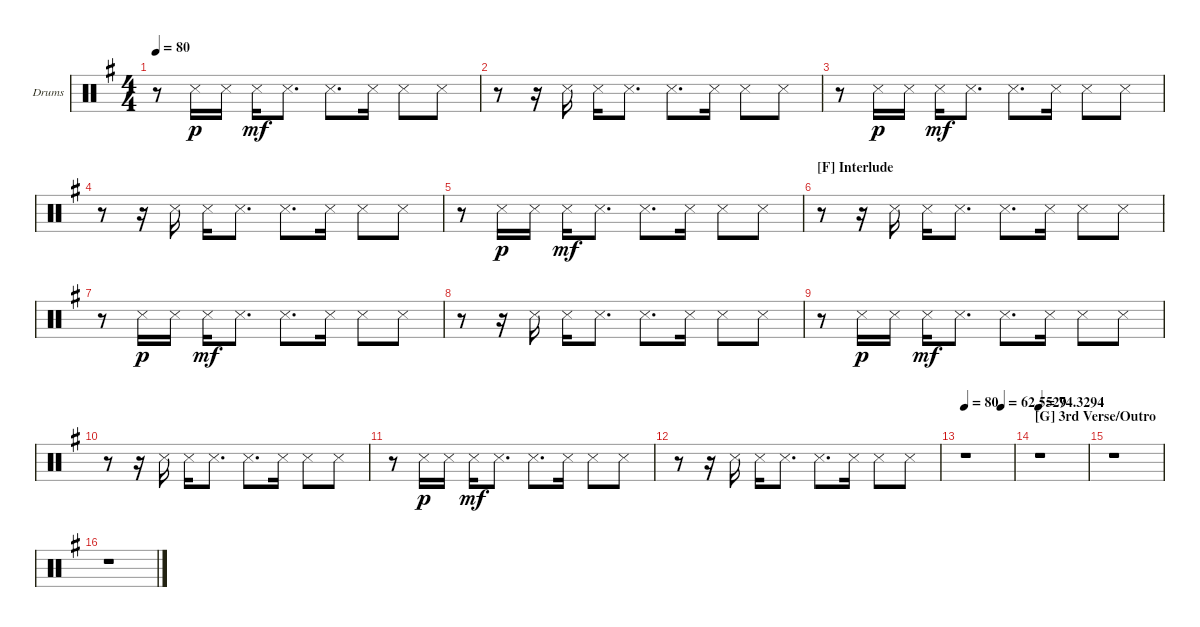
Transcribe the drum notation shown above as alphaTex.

\defaultSystemsLayout 4
\bracketExtendMode groupsimilarinstruments
\firstSystemTrackNameOrientation horizontal
\otherSystemsTrackNameOrientation horizontal
\chordDiagramsInScore
\track ("Side Stick OD" "Drums") {instrument percussion}
\staff {score}
\articulation defaults
\ts (4 4)
\tempo 80
\clef neutral
\ks g
r.8{dy mf} "Snare (side stick) 3".16{dy p} "Snare (side stick) 3".16 "Snare (side stick) 3".16{dy mf} "Snare (side stick) 3".8{d} "Snare (side stick) 3".8{d} "Snare (side stick) 3".16 "Snare (side stick) 3".8 "Snare (side stick) 3".8 |
r.8 r.16 "Snare (side stick) 3".16 "Snare (side stick) 3".16 "Snare (side stick) 3".8{d} "Snare (side stick) 3".8{d} "Snare (side stick) 3".16 "Snare (side stick) 3".8 "Snare (side stick) 3".8 |
r.8 "Snare (side stick) 3".16{dy p} "Snare (side stick) 3".16 "Snare (side stick) 3".16{dy mf} "Snare (side stick) 3".8{d} "Snare (side stick) 3".8{d} "Snare (side stick) 3".16 "Snare (side stick) 3".8 "Snare (side stick) 3".8 |
r.8 r.16 "Snare (side stick) 3".16 "Snare (side stick) 3".16 "Snare (side stick) 3".8{d} "Snare (side stick) 3".8{d} "Snare (side stick) 3".16 "Snare (side stick) 3".8 "Snare (side stick) 3".8 |
r.8 "Snare (side stick) 3".16{dy p} "Snare (side stick) 3".16 "Snare (side stick) 3".16{dy mf} "Snare (side stick) 3".8{d} "Snare (side stick) 3".8{d} "Snare (side stick) 3".16 "Snare (side stick) 3".8 "Snare (side stick) 3".8 |
\section ("F" "Interlude")
r.8 r.16 "Snare (side stick) 3".16 "Snare (side stick) 3".16 "Snare (side stick) 3".8{d} "Snare (side stick) 3".8{d} "Snare (side stick) 3".16 "Snare (side stick) 3".8 "Snare (side stick) 3".8 |
r.8 "Snare (side stick) 3".16{dy p} "Snare (side stick) 3".16 "Snare (side stick) 3".16{dy mf} "Snare (side stick) 3".8{d} "Snare (side stick) 3".8{d} "Snare (side stick) 3".16 "Snare (side stick) 3".8 "Snare (side stick) 3".8 |
r.8 r.16 "Snare (side stick) 3".16 "Snare (side stick) 3".16 "Snare (side stick) 3".8{d} "Snare (side stick) 3".8{d} "Snare (side stick) 3".16 "Snare (side stick) 3".8 "Snare (side stick) 3".8 |
r.8 "Snare (side stick) 3".16{dy p} "Snare (side stick) 3".16 "Snare (side stick) 3".16{dy mf} "Snare (side stick) 3".8{d} "Snare (side stick) 3".8{d} "Snare (side stick) 3".16 "Snare (side stick) 3".8 "Snare (side stick) 3".8 |
r.8 r.16 "Snare (side stick) 3".16 "Snare (side stick) 3".16 "Snare (side stick) 3".8{d} "Snare (side stick) 3".8{d} "Snare (side stick) 3".16 "Snare (side stick) 3".8 "Snare (side stick) 3".8 |
r.8 "Snare (side stick) 3".16{dy p} "Snare (side stick) 3".16 "Snare (side stick) 3".16{dy mf} "Snare (side stick) 3".8{d} "Snare (side stick) 3".8{d} "Snare (side stick) 3".16 "Snare (side stick) 3".8 "Snare (side stick) 3".8 |
r.8 r.16 "Snare (side stick) 3".16 "Snare (side stick) 3".16 "Snare (side stick) 3".8{d} "Snare (side stick) 3".8{d} "Snare (side stick) 3".16 "Snare (side stick) 3".8 "Snare (side stick) 3".8 |
\tempo 80
\tempo (62.5529 0.75)
r.1 |
\section ("G" "3rd Verse/Outro")
\tempo
74.3294 r.1 |
r.1 |
r.1
